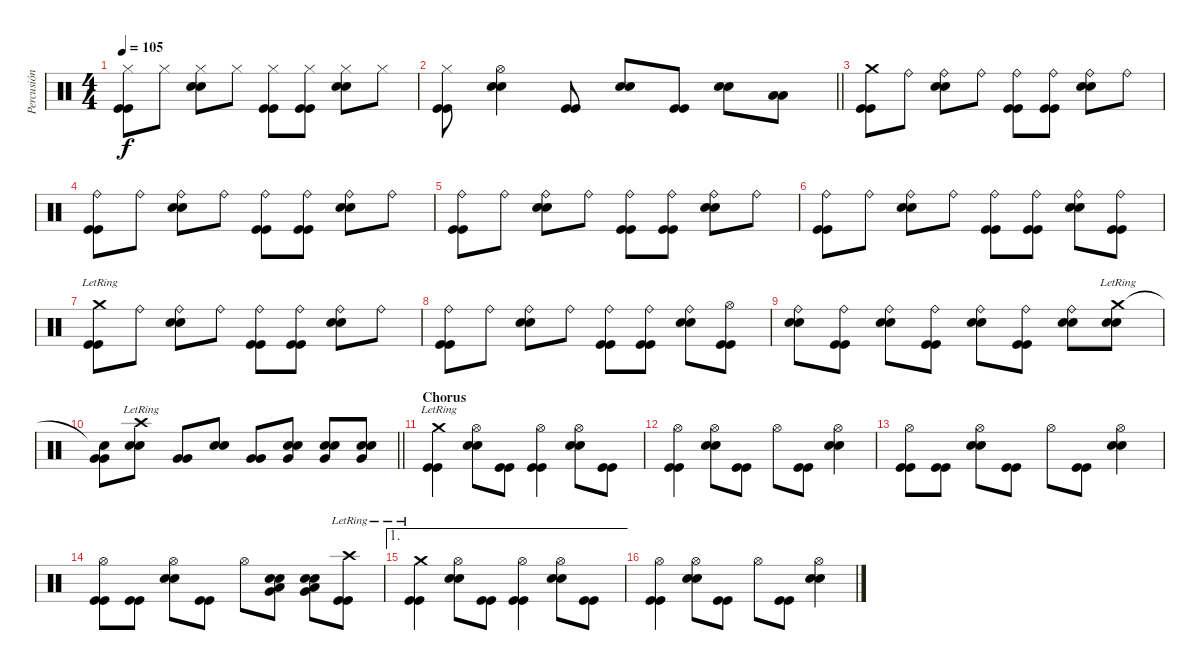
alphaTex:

\track ("Percusión" "Percusión") {instrument percussion}
\staff {score}
\articulation defaults
\ts (4 4)
\tempo 105
\clef neutral
\ks c
("Hi-Hat (closed)" "Kick (hit)" "Kick (hit)").8{dy f} "Hi-Hat (closed)".8 ("Hi-Hat (closed)" "Electric Snare (hit)" "Electric Snare (hit)").8 "Hi-Hat (closed)".8 ("Hi-Hat (closed)" "Kick (hit)" "Kick (hit)").8 ("Hi-Hat (closed)" "Kick (hit)" "Kick (hit)").8 ("Hi-Hat (closed)" "Electric Snare (hit)" "Electric Snare (hit)").8 "Hi-Hat (closed)".8 |
\barLineRight lightlight
("Hi-Hat (closed)" "Kick (hit)" "Kick (hit)").8 ("Hi-Hat (open)" "Electric Snare (hit)" "Electric Snare (hit)").4 ("Kick (hit)" "Kick (hit)").8 ("Electric Snare (hit)" "Electric Snare (hit)").8 ("Kick (hit)" "Kick (hit)").8 ("Electric Snare (hit)" "Electric Snare (hit)").8 ("Low Tom (hit)" "Low Tom (hit)").8 |
("Crash medium (hit)" "Kick (hit)" "Kick (hit)").8 "Ride (bell)".8 ("Ride (bell)" "Electric Snare (hit)" "Electric Snare (hit)").8 "Ride (bell)".8 ("Ride (bell)" "Kick (hit)" "Kick (hit)").8 ("Ride (bell)" "Kick (hit)" "Kick (hit)").8 ("Ride (bell)" "Electric Snare (hit)" "Electric Snare (hit)").8 "Ride (bell)".8 |
("Ride (bell)" "Kick (hit)" "Kick (hit)").8 "Ride (bell)".8 ("Ride (bell)" "Electric Snare (hit)" "Electric Snare (hit)").8 "Ride (bell)".8 ("Ride (bell)" "Kick (hit)" "Kick (hit)").8 ("Ride (bell)" "Kick (hit)" "Kick (hit)").8 ("Ride (bell)" "Electric Snare (hit)" "Electric Snare (hit)").8 "Ride (bell)".8 |
("Ride (bell)" "Kick (hit)" "Kick (hit)").8 "Ride (bell)".8 ("Ride (bell)" "Electric Snare (hit)" "Electric Snare (hit)").8 "Ride (bell)".8 ("Ride (bell)" "Kick (hit)" "Kick (hit)").8 ("Ride (bell)" "Kick (hit)" "Kick (hit)").8 ("Ride (bell)" "Electric Snare (hit)" "Electric Snare (hit)").8 "Ride (bell)".8 |
("Ride (bell)" "Kick (hit)" "Kick (hit)").8 "Ride (bell)".8 ("Ride (bell)" "Electric Snare (hit)" "Electric Snare (hit)").8 "Ride (bell)".8 ("Ride (bell)" "Kick (hit)" "Kick (hit)").8 ("Ride (bell)" "Kick (hit)" "Kick (hit)").8 ("Ride (bell)" "Electric Snare (hit)" "Electric Snare (hit)").8 ("Ride (bell)" "Kick (hit)" "Kick (hit)").8 |
("Crash medium (hit)"{lr} "Kick (hit)" "Kick (hit)").8 "Ride (bell)".8 ("Ride (bell)" "Electric Snare (hit)" "Electric Snare (hit)").8 "Ride (bell)".8 ("Ride (bell)" "Kick (hit)" "Kick (hit)").8 ("Ride (bell)" "Kick (hit)" "Kick (hit)").8 ("Ride (bell)" "Electric Snare (hit)" "Electric Snare (hit)").8 "Ride (bell)".8 |
("Ride (bell)" "Kick (hit)" "Kick (hit)").8 "Ride (bell)".8 ("Ride (bell)" "Electric Snare (hit)" "Electric Snare (hit)").8 "Ride (bell)".8 ("Ride (bell)" "Kick (hit)" "Kick (hit)").8 ("Ride (bell)" "Kick (hit)" "Kick (hit)").8 ("Ride (bell)" "Electric Snare (hit)" "Electric Snare (hit)").8 ("Hi-Hat (open)" "Kick (hit)" "Kick (hit)").8 |
("Ride (bell)" "Electric Snare (hit)" "Electric Snare (hit)").8 ("Ride (bell)" "Kick (hit)" "Kick (hit)").8 ("Ride (bell)" "Electric Snare (hit)" "Electric Snare (hit)").8 ("Ride (bell)" "Kick (hit)" "Kick (hit)").8 ("Ride (bell)" "Electric Snare (hit)" "Electric Snare (hit)").8 ("Ride (bell)" "Kick (hit)" "Kick (hit)").8 ("Ride (bell)" "Electric Snare (hit)" "Electric Snare (hit)").8 ("Crash medium (hit)"{lr} "Electric Snare (hit)" "Electric Snare (hit)").8 |
\barLineRight lightlight
("Snare (hit)"{t} "Very Low Tom (hit)" "Very Low Tom (hit)").8 ("Crash high (hit)"{lr} "Electric Snare (hit)" "Electric Snare (hit)").8 ("Very Low Tom (hit)" "Very Low Tom (hit)").8 ("Electric Snare (hit)" "Electric Snare (hit)").8 ("Very Low Tom (hit)" "Very Low Tom (hit)").8 ("Very Low Tom (hit)" "Electric Snare (hit)" "Electric Snare (hit)").8 ("Very Low Tom (hit)" "Electric Snare (hit)" "Electric Snare (hit)").8 ("Very Low Tom (hit)" "Electric Snare (hit)" "Electric Snare (hit)").8 |
\section ("" "Chorus")
("Crash medium (hit)"{lr} "Kick (hit)" "Kick (hit)").4 ("Hi-Hat (open)" "Electric Snare (hit)" "Electric Snare (hit)").8 ("Kick (hit)" "Kick (hit)").8 ("Hi-Hat (open)" "Kick (hit)" "Kick (hit)").4 ("Hi-Hat (open)" "Electric Snare (hit)" "Electric Snare (hit)").8 ("Kick (hit)" "Kick (hit)").8 |
("Hi-Hat (open)" "Kick (hit)" "Kick (hit)").4 ("Hi-Hat (open)" "Electric Snare (hit)" "Electric Snare (hit)").8 ("Kick (hit)" "Kick (hit)").8 "Hi-Hat (open)".8 ("Kick (hit)" "Kick (hit)").8 ("Hi-Hat (open)" "Electric Snare (hit)" "Electric Snare (hit)").4 |
("Hi-Hat (open)" "Kick (hit)" "Kick (hit)").8 ("Kick (hit)" "Kick (hit)").8 ("Hi-Hat (open)" "Electric Snare (hit)" "Electric Snare (hit)").8 ("Kick (hit)" "Kick (hit)").8 "Hi-Hat (open)".8 ("Kick (hit)" "Kick (hit)").8 ("Hi-Hat (open)" "Electric Snare (hit)" "Electric Snare (hit)").4 |
("Hi-Hat (open)" "Kick (hit)" "Kick (hit)").8 ("Kick (hit)" "Kick (hit)").8 ("Hi-Hat (open)" "Electric Snare (hit)" "Electric Snare (hit)").8 ("Kick (hit)" "Kick (hit)").8 "Hi-Hat (open)".8 ("Low Tom (hit)" "Very Low Tom (hit)" "Electric Snare (hit)" "Electric Snare (hit)").8 ("Low Tom (hit)" "Very Low Tom (hit)" "Electric Snare (hit)" "Electric Snare (hit)").8 ("Crash high (hit)"{lr} "Kick (hit)" "Kick (hit)").8 |
\ae 1
("Crash medium (hit)"{lr} "Kick (hit)" "Kick (hit)").4 ("Hi-Hat (open)" "Electric Snare (hit)" "Electric Snare (hit)").8 ("Kick (hit)" "Kick (hit)").8 ("Hi-Hat (open)" "Kick (hit)" "Kick (hit)").4 ("Hi-Hat (open)" "Electric Snare (hit)" "Electric Snare (hit)").8 ("Kick (hit)" "Kick (hit)").8 |
("Hi-Hat (open)" "Kick (hit)" "Kick (hit)").4 ("Hi-Hat (open)" "Electric Snare (hit)" "Electric Snare (hit)").8 ("Kick (hit)" "Kick (hit)").8 "Hi-Hat (open)".8 ("Kick (hit)" "Kick (hit)").8 ("Hi-Hat (open)" "Electric Snare (hit)" "Electric Snare (hit)").4
